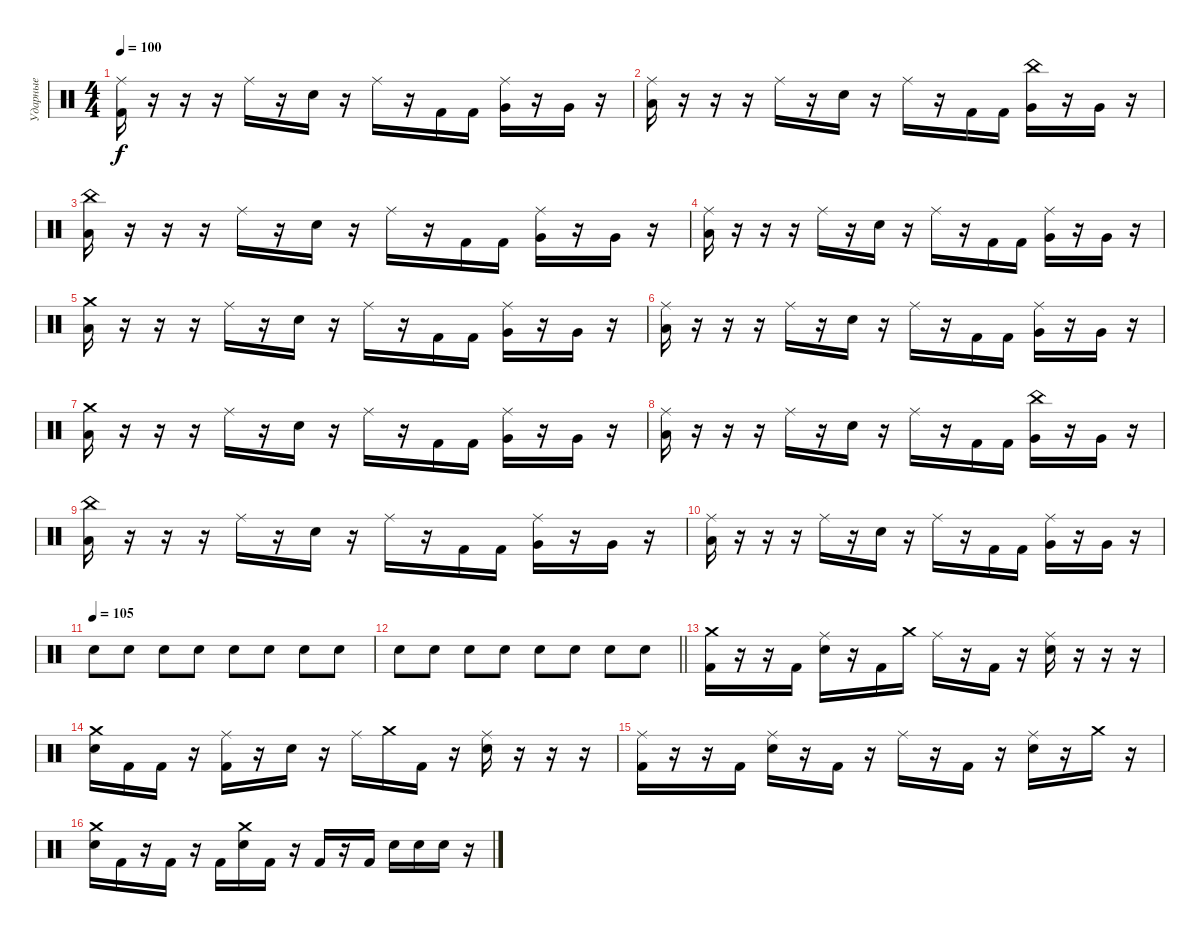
\track ("Ударные" "Ударные") {instrument percussion}
\staff {score}
\articulation defaults
\ts (4 4)
\tempo 100
\clef neutral
\ks c
("Ride (middle)" "Kick (hit) 2").16{dy f} r.16 r.16 r.16 "Ride (middle)".16 r.16 "Electric Snare (hit)".16 r.16 "Ride (middle)".16 r.16 "Kick (hit) 2".16 "Kick (hit) 2".16 ("Ride (middle)" "Very Low Tom (hit)").16 r.16 "Very Low Tom (hit)".16 r.16 |
("Ride (middle)" "Low Floor Tom (hit)").16 r.16 r.16 r.16 "Ride (middle)".16 r.16 "Electric Snare (hit)".16 r.16 "Ride (middle)".16 r.16 "Kick (hit) 2".16 "Kick (hit) 2".16 ("China (hit)" "Very Low Tom (hit)").16 r.16 "Very Low Tom (hit)".16 r.16 |
("China (hit)" "Low Floor Tom (hit)").16 r.16 r.16 r.16 "Ride (middle)".16 r.16 "Electric Snare (hit)".16 r.16 "Ride (middle)".16 r.16 "Kick (hit) 2".16 "Kick (hit) 2".16 ("Ride (middle)" "Very Low Tom (hit)").16 r.16 "Very Low Tom (hit)".16 r.16 |
("Ride (middle)" "Low Floor Tom (hit)").16 r.16 r.16 r.16 "Ride (middle)".16 r.16 "Electric Snare (hit)".16 r.16 "Ride (middle)".16 r.16 "Kick (hit) 2".16 "Kick (hit) 2".16 ("Ride (middle)" "Very Low Tom (hit)").16 r.16 "Very Low Tom (hit)".16 r.16 |
("Crash medium (hit)" "Low Floor Tom (hit)").16 r.16 r.16 r.16 "Ride (middle)".16 r.16 "Electric Snare (hit)".16 r.16 "Ride (middle)".16 r.16 "Kick (hit) 2".16 "Kick (hit) 2".16 ("Ride (middle)" "Very Low Tom (hit)").16 r.16 "Very Low Tom (hit)".16 r.16 |
("Ride (middle)" "Low Floor Tom (hit)").16 r.16 r.16 r.16 "Ride (middle)".16 r.16 "Electric Snare (hit)".16 r.16 "Ride (middle)".16 r.16 "Kick (hit) 2".16 "Kick (hit) 2".16 ("Ride (middle)" "Very Low Tom (hit)").16 r.16 "Very Low Tom (hit)".16 r.16 |
("Crash medium (hit)" "Low Floor Tom (hit)").16 r.16 r.16 r.16 "Ride (middle)".16 r.16 "Electric Snare (hit)".16 r.16 "Ride (middle)".16 r.16 "Kick (hit) 2".16 "Kick (hit) 2".16 ("Ride (middle)" "Very Low Tom (hit)").16 r.16 "Very Low Tom (hit)".16 r.16 |
("Ride (middle)" "Low Floor Tom (hit)").16 r.16 r.16 r.16 "Ride (middle)".16 r.16 "Electric Snare (hit)".16 r.16 "Ride (middle)".16 r.16 "Kick (hit) 2".16 "Kick (hit) 2".16 ("China (hit)" "Very Low Tom (hit)").16 r.16 "Very Low Tom (hit)".16 r.16 |
("China (hit)" "Low Floor Tom (hit)").16 r.16 r.16 r.16 "Ride (middle)".16 r.16 "Electric Snare (hit)".16 r.16 "Ride (middle)".16 r.16 "Kick (hit) 2".16 "Kick (hit) 2".16 ("Ride (middle)" "Very Low Tom (hit)").16 r.16 "Very Low Tom (hit)".16 r.16 |
("Ride (middle)" "Low Floor Tom (hit)").16 r.16 r.16 r.16 "Ride (middle)".16 r.16 "Electric Snare (hit)".16 r.16 "Ride (middle)".16 r.16 "Kick (hit) 2".16 "Kick (hit) 2".16 ("Ride (middle)" "Very Low Tom (hit)").16 r.16 "Very Low Tom (hit)".16 r.16 |
\tempo (105)
"Electric Snare (hit)".8 "Electric Snare (hit)".8 "Electric Snare (hit)".8 "Electric Snare (hit)".8 "Electric Snare (hit)".8 "Electric Snare (hit)".8 "Electric Snare (hit)".8 "Electric Snare (hit)".8 |
\barLineRight lightlight "Electric Snare (hit)".8 "Electric Snare (hit)".8 "Electric Snare (hit)".8 "Electric Snare (hit)".8 "Electric Snare (hit)".8 "Electric Snare (hit)".8 "Electric Snare (hit)".8 "Electric Snare (hit)".8
|
("Crash medium (hit)" "Kick (hit) 2").16 r.16 r.16 "Kick (hit) 2".16 ("Ride (middle)" "Electric Snare (hit)").16 r.16 "Kick (hit) 2".16 "Crash medium (hit)".16 "Ride (middle)".16 r.16 "Kick (hit) 2".16 r.16 ("Ride (middle)" "Electric Snare (hit)").16 r.16 r.16 r.16 |
("Crash medium (hit)" "Electric Snare (hit)").16 "Kick (hit) 2".16 "Kick (hit) 2".16 r.16 ("Ride (middle)" "Kick (hit) 2").16 r.16 "Electric Snare (hit)".16 r.16 "Ride (middle)".16 "Crash medium (hit)".16 "Kick (hit) 2".16 r.16 ("Ride (middle)" "Electric Snare (hit)").16 r.16 r.16 r.16 |
("Ride (middle)" "Kick (hit) 2").16 r.16 r.16 "Kick (hit) 2".16 ("Ride (middle)" "Electric Snare (hit)").16 r.16 "Kick (hit) 2".16 r.16 "Ride (middle)".16 r.16 "Kick (hit) 2".16 r.16 ("Ride (middle)" "Electric Snare (hit)").16 r.16 "Crash medium (hit)".16 r.16 |
("Crash medium (hit)" "Electric Snare (hit)").16 "Kick (hit) 2".16 r.16 "Kick (hit) 2".16 r.16 "Kick (hit) 2".16 ("Crash medium (hit)" "Electric Snare (hit)").16 "Kick (hit) 2".16 r.16 "Kick (hit) 2".16 r.16 "Kick (hit) 2".16 "Electric Snare (hit)".16 "Electric Snare (hit)".16 "Electric Snare (hit)".16 r.16
